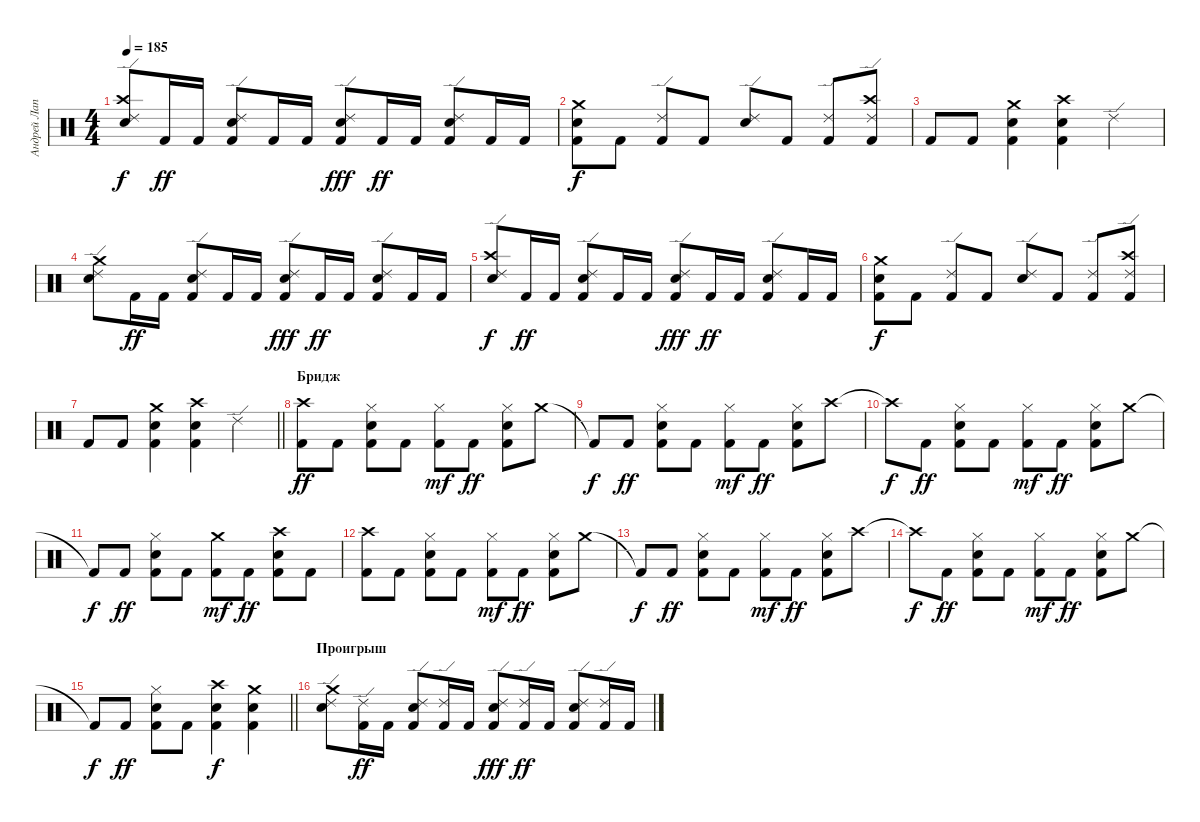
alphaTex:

\track ("Андрей Лаптев" "Андрей Лап") {instrument percussion}
\staff {score}
\articulation defaults
\ts (4 4)
\tempo 185
\clef neutral
\ks c
("Ride (edge) 2" "Crash high (hit)" "Electric Snare (hit)").8{dy f} "Kick (hit) 2".16{dy ff} "Kick (hit) 2".16 ("Kick (hit) 2" "Electric Snare (hit)" "Ride (edge) 2").8 "Kick (hit) 2".16 "Kick (hit) 2".16 ("Kick (hit) 2" "Ride (edge) 2" "Electric Snare (hit)").8{dy fff} "Kick (hit) 2".16{dy ff} "Kick (hit) 2".16 ("Ride (edge) 2" "Electric Snare (hit)" "Kick (hit) 2").8 "Kick (hit) 2".16 "Kick (hit) 2".16 |
("Crash medium (hit)" "Electric Snare (hit)" "Kick (hit) 2").8{dy f} "Kick (hit) 2".8 ("Kick (hit) 2" "Ride (edge) 2").8 "Kick (hit) 2".8 ("Electric Snare (hit)" "Ride (edge) 2").8 "Kick (hit) 2".8 ("Ride (edge) 2" "Kick (hit) 2").8 ("Ride (edge) 2" "Crash high (hit)" "Kick (hit) 2").8 |
"Kick (hit) 2".8 "Kick (hit) 2".8 ("Kick (hit) 2" "Crash medium (hit)" "Electric Snare (hit)").4 ("Electric Snare (hit)" "Crash high (hit)" "Kick (hit) 2").4 "Ride (edge) 2".4 |
("Ride (edge) 2" "Crash medium (hit)" "Electric Snare (hit)").8 "Kick (hit) 2".16{dy ff} "Kick (hit) 2".16 ("Kick (hit) 2" "Electric Snare (hit)" "Ride (edge) 2").8 "Kick (hit) 2".16 "Kick (hit) 2".16 ("Kick (hit) 2" "Ride (edge) 2" "Electric Snare (hit)").8{dy fff} "Kick (hit) 2".16{dy ff} "Kick (hit) 2".16 ("Ride (edge) 2" "Electric Snare (hit)" "Kick (hit) 2").8 "Kick (hit) 2".16 "Kick (hit) 2".16 |
("Ride (edge) 2" "Crash high (hit)" "Electric Snare (hit)").8{dy f} "Kick (hit) 2".16{dy ff} "Kick (hit) 2".16 ("Kick (hit) 2" "Electric Snare (hit)" "Ride (edge) 2").8 "Kick (hit) 2".16 "Kick (hit) 2".16 ("Kick (hit) 2" "Ride (edge) 2" "Electric Snare (hit)").8{dy fff} "Kick (hit) 2".16{dy ff} "Kick (hit) 2".16 ("Ride (edge) 2" "Electric Snare (hit)" "Kick (hit) 2").8 "Kick (hit) 2".16 "Kick (hit) 2".16 |
("Crash medium (hit)" "Electric Snare (hit)" "Kick (hit) 2").8{dy f} "Kick (hit) 2".8 ("Kick (hit) 2" "Ride (edge) 2").8 "Kick (hit) 2".8 ("Electric Snare (hit)" "Ride (edge) 2").8 "Kick (hit) 2".8 ("Ride (edge) 2" "Kick (hit) 2").8 ("Ride (edge) 2" "Crash high (hit)" "Kick (hit) 2").8 |
\barLineRight lightlight "Kick (hit) 2".8 "Kick (hit) 2".8
("Kick (hit) 2" "Crash medium (hit)" "Electric Snare (hit)").4 ("Electric Snare (hit)" "Crash high (hit)" "Kick (hit) 2").4 "Ride (edge) 2".4 |
\section ("" "Бридж")
("Crash high (hit)" "Kick (hit) 2").8{dy ff} "Kick (hit) 2".8 ("Hi-Hat (closed)" "Electric Snare (hit)" "Kick (hit) 2").8 "Kick (hit) 2".8 ("Kick (hit) 2" "Hi-Hat (closed)").8{dy mf} "Kick (hit) 2".8{dy ff} ("Electric Snare (hit)" "Hi-Hat (closed)" "Kick (hit) 2").8 "Crash medium (hit)".8 |
"Kick (hit) 2"{t}.8{dy f} "Kick (hit) 2".8{dy ff} ("Electric Snare (hit)" "Hi-Hat (closed)" "Kick (hit) 2").8 "Kick (hit) 2".8 ("Kick (hit) 2" "Hi-Hat (closed)").8{dy mf} "Kick (hit) 2".8{dy ff} ("Hi-Hat (closed)" "Electric Snare (hit)" "Kick (hit) 2").8 "Crash high (hit)".8 |
"Crash high (hit)"{t}.8{dy f} "Kick (hit) 2".8{dy ff} ("Hi-Hat (closed)" "Electric Snare (hit)" "Kick (hit) 2").8 "Kick (hit) 2".8 ("Kick (hit) 2" "Hi-Hat (closed)").8{dy mf} "Kick (hit) 2".8{dy ff} ("Electric Snare (hit)" "Hi-Hat (closed)" "Kick (hit) 2").8 "Crash medium (hit)".8 |
"Kick (hit) 2"{t}.8{dy f} "Kick (hit) 2".8{dy ff} ("Electric Snare (hit)" "Hi-Hat (closed)" "Kick (hit) 2").8 "Kick (hit) 2".8 ("Kick (hit) 2" "Crash medium (hit)").8{dy mf} "Kick (hit) 2".8{dy ff} ("Crash high (hit)" "Electric Snare (hit)" "Kick (hit) 2").8 "Kick (hit) 2".8 |
("Crash high (hit)" "Kick (hit) 2").8 "Kick (hit) 2".8 ("Hi-Hat (closed)" "Electric Snare (hit)" "Kick (hit) 2").8 "Kick (hit) 2".8 ("Kick (hit) 2" "Hi-Hat (closed)").8{dy mf} "Kick (hit) 2".8{dy ff} ("Electric Snare (hit)" "Hi-Hat (closed)" "Kick (hit) 2").8 "Crash medium (hit)".8 |
"Kick (hit) 2"{t}.8{dy f} "Kick (hit) 2".8{dy ff} ("Electric Snare (hit)" "Hi-Hat (closed)" "Kick (hit) 2").8 "Kick (hit) 2".8 ("Kick (hit) 2" "Hi-Hat (closed)").8{dy mf} "Kick (hit) 2".8{dy ff} ("Hi-Hat (closed)" "Electric Snare (hit)" "Kick (hit) 2").8 "Crash high (hit)".8 |
"Crash high (hit)"{t}.8{dy f} "Kick (hit) 2".8{dy ff} ("Hi-Hat (closed)" "Electric Snare (hit)" "Kick (hit) 2").8 "Kick (hit) 2".8 ("Kick (hit) 2" "Hi-Hat (closed)").8{dy mf} "Kick (hit) 2".8{dy ff} ("Electric Snare (hit)" "Hi-Hat (closed)" "Kick (hit) 2").8 "Crash medium (hit)".8 |
\barLineRight lightlight "Kick (hit) 2"{t}.8{dy f} "Kick (hit) 2".8{dy ff}
("Electric Snare (hit)" "Hi-Hat (closed)" "Kick (hit) 2").8 "Kick (hit) 2".8 ("Electric Snare (hit)" "Crash high (hit)" "Kick (hit) 2").4{dy f} ("Electric Snare (hit)" "Crash medium (hit)" "Kick (hit) 2").4 |
\section ("" "Проигрыш")
("Ride (edge) 2" "Crash medium (hit)" "Electric Snare (hit)").8 ("Kick (hit) 2" "Ride (edge) 2").16{dy ff} "Kick (hit) 2".16 ("Kick (hit) 2" "Electric Snare (hit)" "Ride (edge) 2").8 ("Kick (hit) 2" "Ride (edge) 2").16 "Kick (hit) 2".16 ("Kick (hit) 2" "Ride (edge) 2" "Electric Snare (hit)").8{dy fff} ("Kick (hit) 2" "Ride (edge) 2").16{dy ff} "Kick (hit) 2".16 ("Ride (edge) 2" "Electric Snare (hit)" "Kick (hit) 2").8 ("Kick (hit) 2" "Ride (edge) 2").16 "Kick (hit) 2".16
